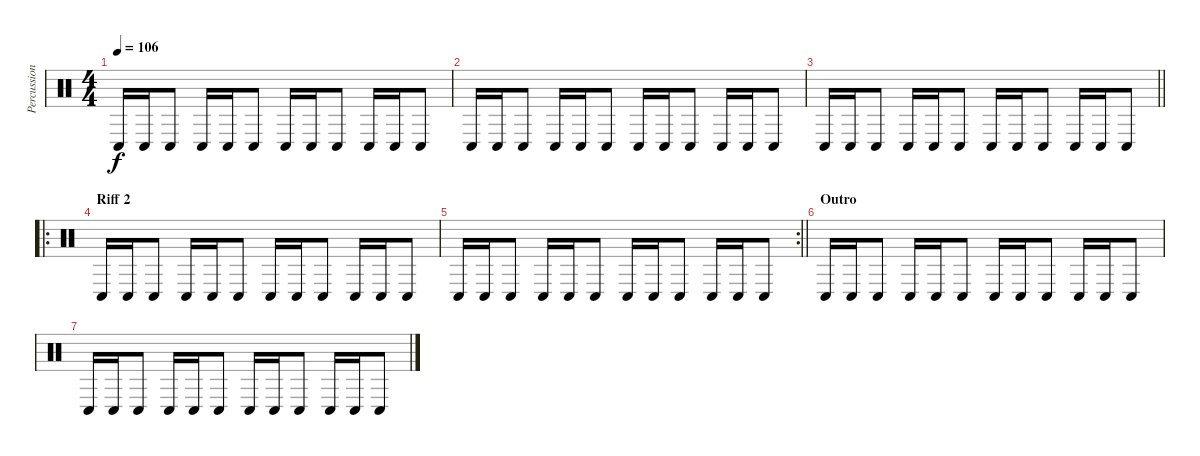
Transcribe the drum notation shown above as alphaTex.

\track ("Percussion 2" "Percussion") {instrument percussion}
\staff {score}
\articulation defaults
\ts (4 4)
\tempo 106
\clef neutral
\ks c "Conga low (hit)".16{dy f} "Conga low (hit)".16 "Conga low (hit)".8 "Conga low (hit)".16 "Conga low (hit)".16 "Conga low (hit)".8 "Conga low (hit)".16 "Conga low (hit)".16 "Conga low (hit)".8 "Conga low (hit)".16 "Conga low (hit)".16 "Conga low (hit)".8
|
"Conga low (hit)".16 "Conga low (hit)".16 "Conga low (hit)".8 "Conga low (hit)".16 "Conga low (hit)".16 "Conga low (hit)".8 "Conga low (hit)".16 "Conga low (hit)".16 "Conga low (hit)".8 "Conga low (hit)".16 "Conga low (hit)".16 "Conga low (hit)".8 |
\barLineRight lightlight "Conga low (hit)".16 "Conga low (hit)".16 "Conga low (hit)".8 "Conga low (hit)".16 "Conga low (hit)".16 "Conga low (hit)".8 "Conga low (hit)".16 "Conga low (hit)".16 "Conga low (hit)".8 "Conga low (hit)".16 "Conga low (hit)".16 "Conga low (hit)".8
|
\ro
\section ("" "Riff 2")
"Conga low (hit)".16 "Conga low (hit)".16 "Conga low (hit)".8 "Conga low (hit)".16 "Conga low (hit)".16 "Conga low (hit)".8 "Conga low (hit)".16 "Conga low (hit)".16 "Conga low (hit)".8 "Conga low (hit)".16 "Conga low (hit)".16 "Conga low (hit)".8 |
\rc 2
\barLineRight lightlight "Conga low (hit)".16 "Conga low (hit)".16 "Conga low (hit)".8 "Conga low (hit)".16 "Conga low (hit)".16 "Conga low (hit)".8 "Conga low (hit)".16 "Conga low (hit)".16 "Conga low (hit)".8 "Conga low (hit)".16 "Conga low (hit)".16 "Conga low (hit)".8
|
\section ("" "Outro")
"Conga low (hit)".16 "Conga low (hit)".16 "Conga low (hit)".8 "Conga low (hit)".16 "Conga low (hit)".16 "Conga low (hit)".8 "Conga low (hit)".16 "Conga low (hit)".16 "Conga low (hit)".8 "Conga low (hit)".16 "Conga low (hit)".16 "Conga low (hit)".8 |
"Conga low (hit)".16 "Conga low (hit)".16 "Conga low (hit)".8 "Conga low (hit)".16 "Conga low (hit)".16 "Conga low (hit)".8 "Conga low (hit)".16 "Conga low (hit)".16 "Conga low (hit)".8 "Conga low (hit)".16 "Conga low (hit)".16 "Conga low (hit)".8
